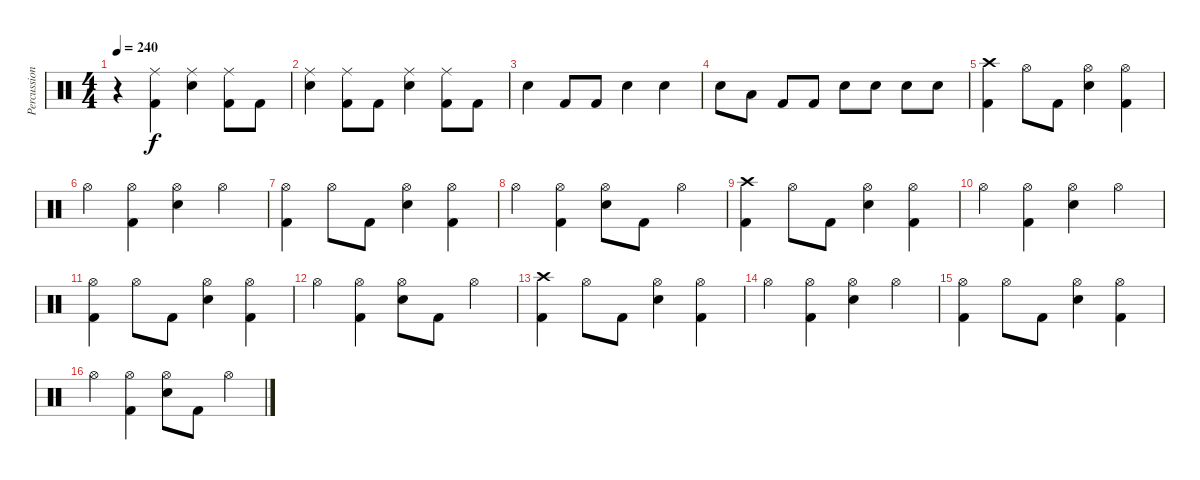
\track ("Percussion" "Percussion") {instrument percussion}
\staff {score}
\articulation defaults
\ts (4 4)
\tempo 240
\clef neutral
\ks c
r.4{dy f} ("Ride (middle)" "Kick (hit) 2").4 ("Ride (middle)" "Snare (hit) 2").4 ("Ride (middle)" "Kick (hit) 2").8 "Kick (hit) 2".8 |
("Ride (middle)" "Snare (hit) 2").4 ("Ride (middle)" "Kick (hit) 2").8 "Kick (hit) 2".8 ("Ride (middle)" "Snare (hit) 2").4 ("Ride (middle)" "Kick (hit) 2").8 "Kick (hit) 2".8 |
"Snare (hit) 2".4 "Kick (hit) 2".8 "Kick (hit) 2".8 "Snare (hit) 2".4 "Snare (hit) 2".4 |
"Snare (hit) 2".8 "Low Tom (hit)".8 "Kick (hit) 2".8 "Kick (hit) 2".8 "Snare (hit) 2".8 "Snare (hit) 2".8 "Snare (hit) 2".8 "Snare (hit) 2".8 |
("Crash high (hit)" "Kick (hit) 2").4 "Hi-Hat (open)".8 "Kick (hit) 2".8 ("Hi-Hat (open)" "Snare (hit) 2").4 ("Hi-Hat (open)" "Kick (hit) 2").4 |
"Hi-Hat (open)".4 ("Hi-Hat (open)" "Kick (hit) 2").4 ("Hi-Hat (open)" "Snare (hit) 2").4 "Hi-Hat (open)".4 |
("Hi-Hat (open)" "Kick (hit) 2").4 "Hi-Hat (open)".8 "Kick (hit) 2".8 ("Hi-Hat (open)" "Snare (hit) 2").4 ("Hi-Hat (open)" "Kick (hit) 2").4 |
"Hi-Hat (open)".4 ("Hi-Hat (open)" "Kick (hit) 2").4 ("Hi-Hat (open)" "Snare (hit) 2").8 "Kick (hit) 2".8 "Hi-Hat (open)".4 |
("Crash high (hit)" "Kick (hit) 2").4 "Hi-Hat (open)".8 "Kick (hit) 2".8 ("Hi-Hat (open)" "Snare (hit) 2").4 ("Hi-Hat (open)" "Kick (hit) 2").4 |
"Hi-Hat (open)".4 ("Hi-Hat (open)" "Kick (hit) 2").4 ("Hi-Hat (open)" "Snare (hit) 2").4 "Hi-Hat (open)".4 |
("Hi-Hat (open)" "Kick (hit) 2").4 "Hi-Hat (open)".8 "Kick (hit) 2".8 ("Hi-Hat (open)" "Snare (hit) 2").4 ("Hi-Hat (open)" "Kick (hit) 2").4 |
"Hi-Hat (open)".4 ("Hi-Hat (open)" "Kick (hit) 2").4 ("Hi-Hat (open)" "Snare (hit) 2").8 "Kick (hit) 2".8 "Hi-Hat (open)".4 |
("Crash high (hit)" "Kick (hit) 2").4 "Hi-Hat (open)".8 "Kick (hit) 2".8 ("Hi-Hat (open)" "Snare (hit) 2").4 ("Hi-Hat (open)" "Kick (hit) 2").4 |
"Hi-Hat (open)".4 ("Hi-Hat (open)" "Kick (hit) 2").4 ("Hi-Hat (open)" "Snare (hit) 2").4 "Hi-Hat (open)".4 |
("Hi-Hat (open)" "Kick (hit) 2").4 "Hi-Hat (open)".8 "Kick (hit) 2".8 ("Hi-Hat (open)" "Snare (hit) 2").4 ("Hi-Hat (open)" "Kick (hit) 2").4 |
"Hi-Hat (open)".4 ("Hi-Hat (open)" "Kick (hit) 2").4 ("Hi-Hat (open)" "Snare (hit) 2").8 "Kick (hit) 2".8 "Hi-Hat (open)".4
